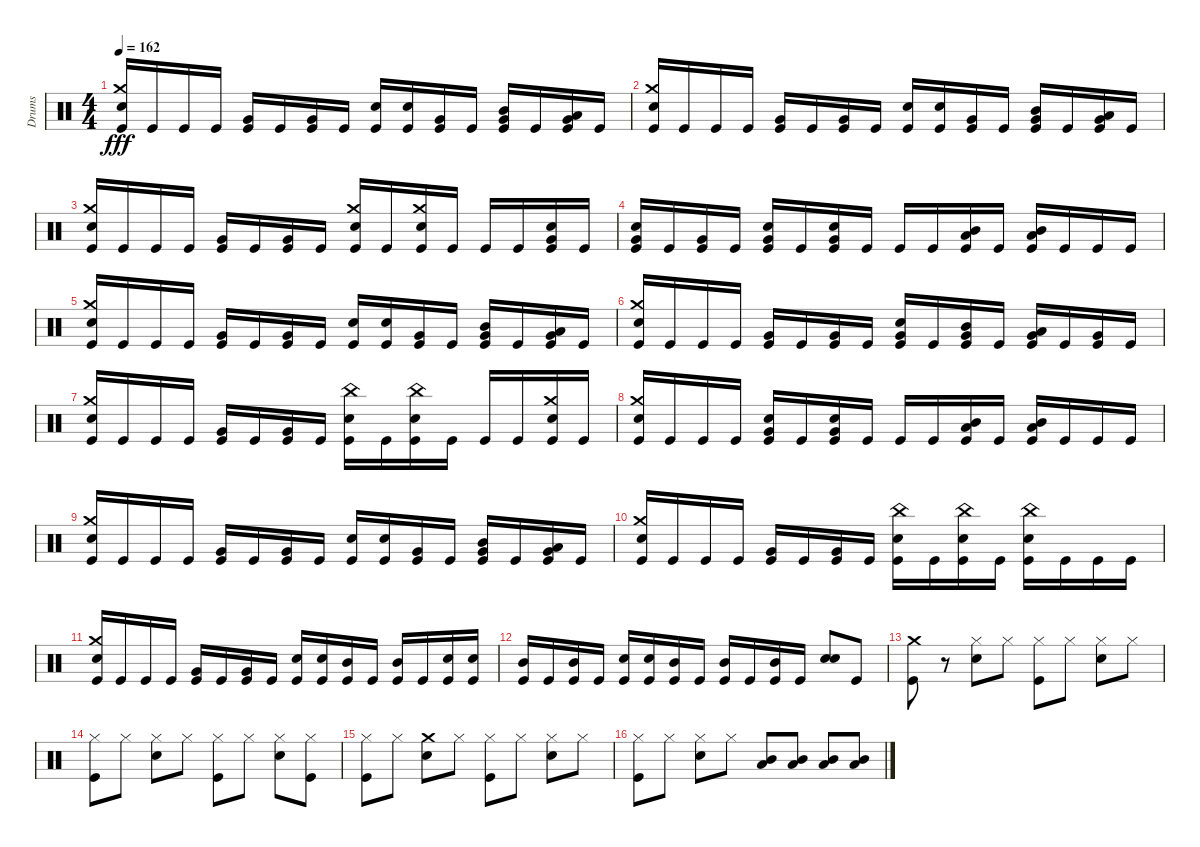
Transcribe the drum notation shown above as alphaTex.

\track ("Drums" "Drums") {instrument percussion}
\staff {score}
\articulation defaults
\ts (4 4)
\tempo 162
\clef neutral
\ks c
("Kick (hit)" "Crash medium (hit)" "Snare (hit) 2").16{dy fff} "Kick (hit)".16 "Kick (hit)".16 "Kick (hit)".16 ("Kick (hit)" "Very Low Tom (hit)").16 "Kick (hit)".16 ("Kick (hit)" "Very Low Tom (hit)").16 "Kick (hit)".16 ("Snare (hit) 2" "Kick (hit)").16 ("Snare (hit) 2" "Kick (hit)").16 ("Kick (hit)" "Very Low Tom (hit)").16 "Kick (hit)".16 ("Mid Tom (hit)" "Kick (hit)" "Very Low Tom (hit)").16 "Kick (hit)".16 ("Low Tom (hit)" "Kick (hit)" "Very Low Tom (hit)").16 "Kick (hit)".16 |
("Kick (hit)" "Crash medium (hit)" "Snare (hit) 2").16 "Kick (hit)".16 "Kick (hit)".16 "Kick (hit)".16 ("Kick (hit)" "Very Low Tom (hit)").16 "Kick (hit)".16 ("Kick (hit)" "Very Low Tom (hit)").16 "Kick (hit)".16 ("Snare (hit) 2" "Kick (hit)").16 ("Snare (hit) 2" "Kick (hit)").16 ("Kick (hit)" "Very Low Tom (hit)").16 "Kick (hit)".16 ("Mid Tom (hit)" "Kick (hit)" "Very Low Tom (hit)").16 "Kick (hit)".16 ("Low Tom (hit)" "Kick (hit)" "Very Low Tom (hit)").16 "Kick (hit)".16 |
("Kick (hit)" "Crash medium (hit)" "Snare (hit) 2").16 "Kick (hit)".16 "Kick (hit)".16 "Kick (hit)".16 ("Kick (hit)" "Very Low Tom (hit)").16 "Kick (hit)".16 ("Kick (hit)" "Very Low Tom (hit)").16 "Kick (hit)".16 ("Crash medium (hit)" "Kick (hit)" "Snare (hit) 2").16 "Kick (hit)".16 ("Snare (hit) 2" "Crash medium (hit)" "Kick (hit)").16 "Kick (hit)".16 "Kick (hit)".16 "Kick (hit)".16 ("Snare (hit) 2" "Kick (hit)" "Very Low Tom (hit)").16 "Kick (hit)".16 |
("Very Low Tom (hit)" "Kick (hit)" "Snare (hit) 2").16 "Kick (hit)".16 ("Very Low Tom (hit)" "Kick (hit)").16 "Kick (hit)".16 ("Snare (hit) 2" "Kick (hit)" "Very Low Tom (hit)").16 "Kick (hit)".16 ("Snare (hit) 2" "Kick (hit)" "Very Low Tom (hit)").16 "Kick (hit)".16 "Kick (hit)".16 "Kick (hit)".16 ("Mid Tom (hit)" "Low Tom (hit)" "Kick (hit)").16 "Kick (hit)".16 ("Mid Tom (hit)" "Low Tom (hit)" "Kick (hit)").16 "Kick (hit)".16 "Kick (hit)".16 "Kick (hit)".16 |
("Kick (hit)" "Crash medium (hit)" "Snare (hit) 2").16 "Kick (hit)".16 "Kick (hit)".16 "Kick (hit)".16 ("Kick (hit)" "Very Low Tom (hit)").16 "Kick (hit)".16 ("Kick (hit)" "Very Low Tom (hit)").16 "Kick (hit)".16 ("Snare (hit) 2" "Kick (hit)").16 ("Snare (hit) 2" "Kick (hit)").16 ("Kick (hit)" "Very Low Tom (hit)").16 "Kick (hit)".16 ("Mid Tom (hit)" "Kick (hit)" "Very Low Tom (hit)").16 "Kick (hit)".16 ("Low Tom (hit)" "Kick (hit)" "Very Low Tom (hit)").16 "Kick (hit)".16 |
("Kick (hit)" "Crash medium (hit)" "Snare (hit) 2").16 "Kick (hit)".16 "Kick (hit)".16 "Kick (hit)".16 ("Kick (hit)" "Very Low Tom (hit)").16 "Kick (hit)".16 ("Kick (hit)" "Very Low Tom (hit)").16 "Kick (hit)".16 ("Kick (hit)" "Snare (hit) 2" "Very Low Tom (hit)").16 "Kick (hit)".16 ("Kick (hit)" "Mid Tom (hit)" "Very Low Tom (hit)").16 "Kick (hit)".16 ("Kick (hit)" "Low Tom (hit)" "Very Low Tom (hit)").16 "Kick (hit)".16 ("Kick (hit)" "Very Low Tom (hit)").16 "Kick (hit)".16 |
("Kick (hit)" "Crash medium (hit)" "Snare (hit) 2").16 "Kick (hit)".16 "Kick (hit)".16 "Kick (hit)".16 ("Kick (hit)" "Very Low Tom (hit)").16 "Kick (hit)".16 ("Kick (hit)" "Very Low Tom (hit)").16 "Kick (hit)".16 ("China (hit)" "Snare (hit) 2" "Kick (hit)").16 "Kick (hit)".16 ("China (hit)" "Snare (hit) 2" "Kick (hit)").16 "Kick (hit)".16 "Kick (hit)".16 "Kick (hit)".16 ("Crash medium (hit)" "Snare (hit) 2" "Kick (hit)").16 "Kick (hit)".16 |
("Kick (hit)" "Crash medium (hit)" "Snare (hit) 2").16 "Kick (hit)".16 "Kick (hit)".16 "Kick (hit)".16 ("Very Low Tom (hit)" "Snare (hit) 2" "Kick (hit)").16 "Kick (hit)".16 ("Very Low Tom (hit)" "Snare (hit) 2" "Kick (hit)").16 "Kick (hit)".16 "Kick (hit)".16 "Kick (hit)".16 ("Mid Tom (hit)" "Low Tom (hit)" "Kick (hit)").16 "Kick (hit)".16 ("Mid Tom (hit)" "Low Tom (hit)" "Kick (hit)").16 "Kick (hit)".16 "Kick (hit)".16 "Kick (hit)".16 |
("Kick (hit)" "Crash medium (hit)" "Snare (hit) 2").16 "Kick (hit)".16 "Kick (hit)".16 "Kick (hit)".16 ("Kick (hit)" "Very Low Tom (hit)").16 "Kick (hit)".16 ("Kick (hit)" "Very Low Tom (hit)").16 "Kick (hit)".16 ("Snare (hit) 2" "Kick (hit)").16 ("Snare (hit) 2" "Kick (hit)").16 ("Kick (hit)" "Very Low Tom (hit)").16 "Kick (hit)".16 ("Mid Tom (hit)" "Kick (hit)" "Very Low Tom (hit)").16 "Kick (hit)".16 ("Low Tom (hit)" "Kick (hit)" "Very Low Tom (hit)").16 "Kick (hit)".16 |
("Kick (hit)" "Crash medium (hit)" "Snare (hit) 2").16 "Kick (hit)".16 "Kick (hit)".16 "Kick (hit)".16 ("Kick (hit)" "Very Low Tom (hit)").16 "Kick (hit)".16 ("Kick (hit)" "Very Low Tom (hit)").16 "Kick (hit)".16 ("China (hit)" "Kick (hit)" "Snare (hit) 2").16 "Kick (hit)".16 ("China (hit)" "Snare (hit) 2" "Kick (hit)").16 "Kick (hit)".16 ("China (hit)" "Snare (hit) 2" "Kick (hit)").16 "Kick (hit)".16 "Kick (hit)".16 "Kick (hit)".16 |
("Kick (hit)" "Crash medium (hit)" "Snare (hit) 2").16 "Kick (hit)".16 "Kick (hit)".16 "Kick (hit)".16 ("Kick (hit)" "Very Low Tom (hit)").16 "Kick (hit)".16 ("Kick (hit)" "Very Low Tom (hit)").16 "Kick (hit)".16 ("Snare (hit) 2" "Kick (hit)").16 ("Snare (hit) 2" "Kick (hit)").16 ("Mid Tom (hit)" "Kick (hit)").16 "Kick (hit)".16 ("Mid Tom (hit)" "Kick (hit)").16 "Kick (hit)".16 ("Snare (hit) 2" "Kick (hit)").16 ("Snare (hit) 2" "Kick (hit)").16 |
("Mid Tom (hit)" "Kick (hit)").16 "Kick (hit)".16 ("Mid Tom (hit)" "Kick (hit)").16 "Kick (hit)".16 ("Snare (hit) 2" "Kick (hit)").16 ("Snare (hit) 2" "Kick (hit)").16 ("Mid Tom (hit)" "Kick (hit)").16 "Kick (hit)".16 ("Mid Tom (hit)" "Kick (hit)").16 "Kick (hit)".16 ("Mid Tom (hit)" "Kick (hit)").16 "Kick (hit)".16 ("Snare (hit) 2" "Snare (hit) 2").8 "Kick (hit)".8 |
("Crash medium (hit)" "Kick (hit)").8 r.8 ("Hi-Hat (closed)" "Snare (hit) 2").8 "Hi-Hat (closed)".8 ("Kick (hit)" "Hi-Hat (closed)").8 "Hi-Hat (closed)".8 ("Snare (hit) 2" "Hi-Hat (closed)").8 "Hi-Hat (closed)".8 |
("Hi-Hat (closed)" "Kick (hit)").8 "Hi-Hat (closed)".8 ("Snare (hit) 2" "Hi-Hat (closed)").8 "Hi-Hat (closed)".8 ("Hi-Hat (closed)" "Kick (hit)").8 "Hi-Hat (closed)".8 ("Snare (hit) 2" "Hi-Hat (closed)").8 ("Kick (hit)" "Hi-Hat (closed)").8 |
("Hi-Hat (closed)" "Kick (hit)").8 "Hi-Hat (closed)".8 ("Crash medium (hit)" "Snare (hit) 2").8 "Hi-Hat (closed)".8 ("Hi-Hat (closed)" "Kick (hit)").8 "Hi-Hat (closed)".8 ("Snare (hit) 2" "Hi-Hat (closed)").8 "Hi-Hat (closed)".8 |
("Hi-Hat (closed)" "Kick (hit)").8 "Hi-Hat (closed)".8 ("Snare (hit) 2" "Hi-Hat (closed)").8 "Hi-Hat (closed)".8 ("Mid Tom (hit)" "Low Tom (hit)").8 ("Mid Tom (hit)" "Low Tom (hit)").8 ("Mid Tom (hit)" "Low Tom (hit)").8 ("Mid Tom (hit)" "Low Tom (hit)").8
